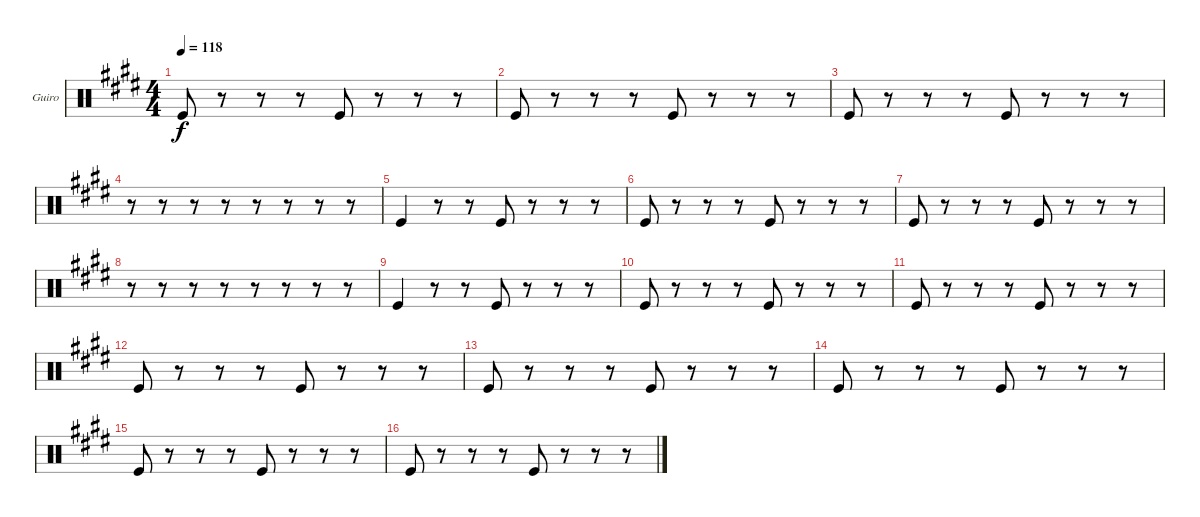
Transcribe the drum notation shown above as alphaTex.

\bracketExtendMode groupsimilarinstruments
\firstSystemTrackNameOrientation horizontal
\otherSystemsTrackNameOrientation horizontal
\track ("Guiro" "Guiro") {instrument percussion}
\staff {score}
\articulation defaults
\ts (4 4)
\tempo 118
\clef neutral
\ks e "Kick (hit)".8{dy f}
r.8 r.8 r.8 "Kick (hit)".8 r.8 r.8 r.8 |
"Kick (hit)".8 r.8 r.8 r.8 "Kick (hit)".8 r.8 r.8 r.8 |
"Kick (hit)".8 r.8 r.8 r.8 "Kick (hit)".8 r.8 r.8 r.8 |
r.8 r.8 r.8 r.8 r.8 r.8 r.8 r.8 |
"Kick (hit)".4 r.8 r.8 "Kick (hit)".8 r.8 r.8 r.8 |
"Kick (hit)".8 r.8 r.8 r.8 "Kick (hit)".8 r.8 r.8 r.8 |
"Kick (hit)".8 r.8 r.8 r.8 "Kick (hit)".8 r.8 r.8 r.8 |
r.8 r.8 r.8 r.8 r.8 r.8 r.8 r.8 |
"Kick (hit)".4 r.8 r.8 "Kick (hit)".8 r.8 r.8 r.8 |
"Kick (hit)".8 r.8 r.8 r.8 "Kick (hit)".8 r.8 r.8 r.8 |
"Kick (hit)".8 r.8 r.8 r.8 "Kick (hit)".8 r.8 r.8 r.8 |
"Kick (hit)".8 r.8 r.8 r.8 "Kick (hit)".8 r.8 r.8 r.8 |
"Kick (hit)".8 r.8 r.8 r.8 "Kick (hit)".8 r.8 r.8 r.8 |
"Kick (hit)".8 r.8 r.8 r.8 "Kick (hit)".8 r.8 r.8 r.8 |
"Kick (hit)".8 r.8 r.8 r.8 "Kick (hit)".8 r.8 r.8 r.8 |
"Kick (hit)".8 r.8 r.8 r.8 "Kick (hit)".8 r.8 r.8 r.8
